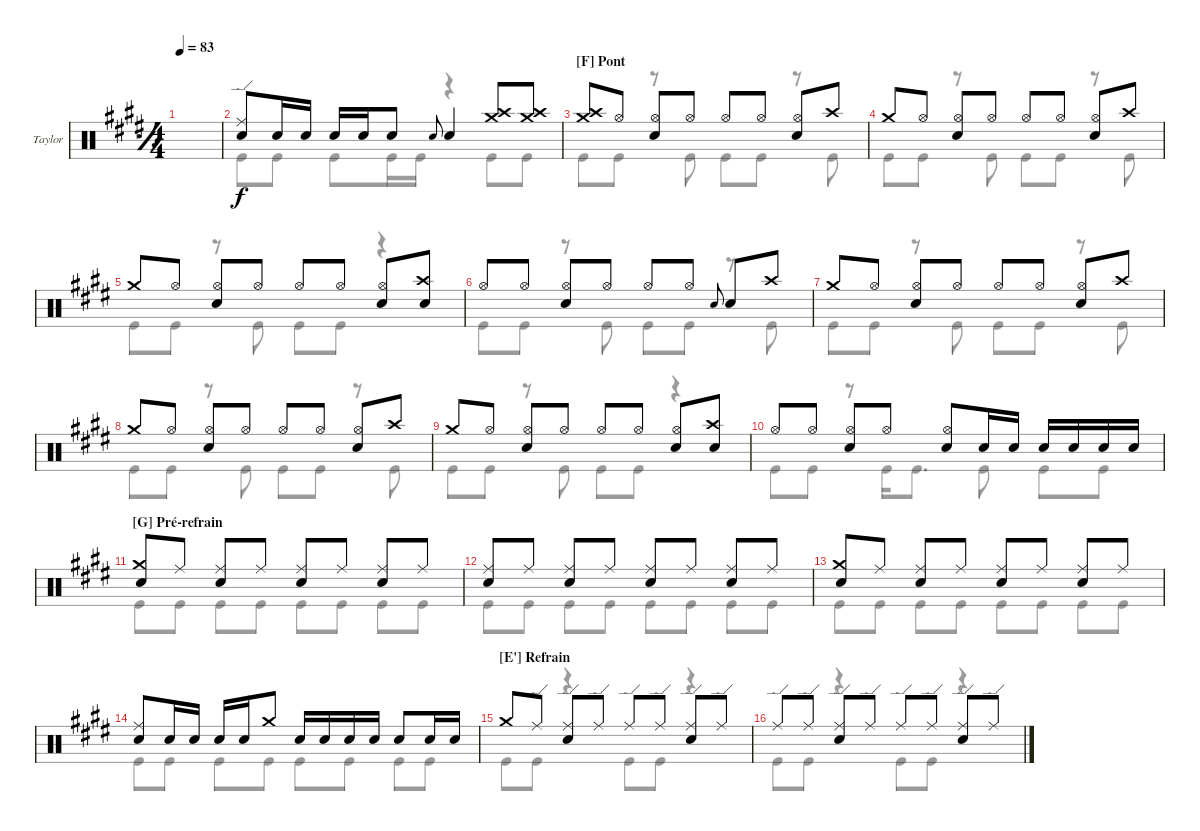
\defaultSystemsLayout 4
\bracketExtendMode groupsimilarinstruments
\firstSystemTrackNameOrientation horizontal
\otherSystemsTrackNameOrientation horizontal
\track ("Drums - Taylor Hawkins" "Taylor") {instrument percussion}
\staff {score}
\articulation defaults
\voice
\ts (4 4)
\tempo 83
\clef neutral
\simile simple
\ks e
|
("Snare (hit) 2" "Ride (edge)").8 "Snare (hit) 2".16 "Snare (hit) 2".16 "Snare (hit) 2".16 "Snare (hit) 2".16 "Snare (hit) 2".8 "Snare (hit) 2".8{gr onbeat} "Snare (hit) 2".4 ("Crash high (hit)" "Crash medium (hit)").8 ("Crash high (hit)" "Crash medium (hit)").8 |
\section ("F" "Pont")
("Crash high (hit)" "Crash medium (hit)").8 "Hi-Hat (open)".8 ("Hi-Hat (open)" "Snare (hit) 2").8 "Hi-Hat (open)".8 "Hi-Hat (open)".8 "Hi-Hat (open)".8 ("Snare (hit) 2" "Hi-Hat (open)").8 "Crash high (hit)".8 |
"Crash medium (hit)".8 "Hi-Hat (open)".8 ("Hi-Hat (open)" "Snare (hit) 2").8 "Hi-Hat (open)".8 "Hi-Hat (open)".8 "Hi-Hat (open)".8 ("Snare (hit) 2" "Hi-Hat (open)").8 "Crash high (hit)".8 |
"Crash medium (hit)".8 "Hi-Hat (open)".8 ("Hi-Hat (open)" "Snare (hit) 2").8 "Hi-Hat (open)".8 "Hi-Hat (open)".8 "Hi-Hat (open)".8 ("Snare (hit) 2" "Hi-Hat (open)").8 ("Crash high (hit)" "Snare (hit) 2").8 |
"Hi-Hat (open)".8 "Hi-Hat (open)".8 ("Hi-Hat (open)" "Snare (hit) 2").8 "Hi-Hat (open)".8 "Hi-Hat (open)".8 "Hi-Hat (open)".8 "Snare (hit) 2".8{gr onbeat} "Snare (hit) 2".8 "Crash high (hit)".8 |
"Crash medium (hit)".8 "Hi-Hat (open)".8 ("Hi-Hat (open)" "Snare (hit) 2").8 "Hi-Hat (open)".8 "Hi-Hat (open)".8 "Hi-Hat (open)".8 ("Snare (hit) 2" "Hi-Hat (open)").8 "Crash high (hit)".8 |
"Crash medium (hit)".8 "Hi-Hat (open)".8 ("Hi-Hat (open)" "Snare (hit) 2").8 "Hi-Hat (open)".8 "Hi-Hat (open)".8 "Hi-Hat (open)".8 ("Snare (hit) 2" "Hi-Hat (open)").8 "Crash high (hit)".8 |
"Crash medium (hit)".8 "Hi-Hat (open)".8 ("Hi-Hat (open)" "Snare (hit) 2").8 "Hi-Hat (open)".8 "Hi-Hat (open)".8 "Hi-Hat (open)".8 ("Snare (hit) 2" "Hi-Hat (open)").8 ("Crash high (hit)" "Snare (hit) 2").8 |
"Hi-Hat (open)".8 "Hi-Hat (open)".8 ("Hi-Hat (open)" "Snare (hit) 2").8 "Hi-Hat (open)".8 ("Hi-Hat (open)" "Snare (hit) 2").8 "Snare (hit) 2".16 "Snare (hit) 2".16 "Snare (hit) 2".16 "Snare (hit) 2".16 "Snare (hit) 2".16 "Snare (hit) 2".16 |
\section ("G" "Pré-refrain")
("Snare (hit) 2" "Crash medium (hit)").8 "Ride (middle)".8 ("Snare (hit) 2" "Ride (middle)").8 "Ride (middle)".8 ("Snare (hit) 2" "Ride (middle)").8 "Ride (middle)".8 ("Snare (hit) 2" "Ride (middle)").8 "Ride (middle)".8 |
("Snare (hit) 2" "Ride (middle)").8 "Ride (middle)".8 ("Snare (hit) 2" "Ride (middle)").8 "Ride (middle)".8 ("Snare (hit) 2" "Ride (middle)").8 "Ride (middle)".8 ("Snare (hit) 2" "Ride (middle)").8 "Ride (middle)".8 |
("Snare (hit) 2" "Crash medium (hit)").8 "Ride (middle)".8 ("Snare (hit) 2" "Ride (middle)").8 "Ride (middle)".8 ("Snare (hit) 2" "Ride (middle)").8 "Ride (middle)".8 ("Snare (hit) 2" "Ride (middle)").8 "Ride (middle)".8 |
("Snare (hit) 2" "Ride (middle)").8 "Snare (hit) 2".16 "Snare (hit) 2".16 "Snare (hit) 2".16 "Snare (hit) 2".16 "Crash medium (hit)".8 "Snare (hit) 2".16 "Snare (hit) 2".16 "Snare (hit) 2".16 "Snare (hit) 2".16 "Snare (hit) 2".8 "Snare (hit) 2".16 "Snare (hit) 2".16 |
\section ("E'" "Refrain")
"Crash medium (hit)".8 "Ride (edge)".8 ("Ride (edge)" "Snare (hit) 2").8 "Ride (edge)".8 "Ride (edge)".8 "Ride (edge)".8 ("Ride (edge)" "Snare (hit) 2").8 "Ride (edge)".8 |
"Ride (edge)".8 "Ride (edge)".8 ("Ride (edge)" "Snare (hit) 2").8 "Ride (edge)".8 "Ride (edge)".8 "Ride (edge)".8 ("Ride (edge)" "Snare (hit) 2").8 "Ride (edge)".8
\voice
\clef neutral
\ottava regular
\simile simple
\ks e
|
\simile none "Kick (hit)".8 "Kick (hit)".8 "Kick (hit)".8 "Kick (hit)".16 "Kick (hit)".16
r.4 "Kick (hit)".8 "Kick (hit)".8 |
"Kick (hit)".8 "Kick (hit)".8 r.8 "Kick (hit)".8 "Kick (hit)".8 "Kick (hit)".8 r.8 "Kick (hit)".8 |
"Kick (hit)".8 "Kick (hit)".8 r.8 "Kick (hit)".8 "Kick (hit)".8 "Kick (hit)".8 r.8 "Kick (hit)".8 |
"Kick (hit)".8 "Kick (hit)".8 r.8 "Kick (hit)".8 "Kick (hit)".8 "Kick (hit)".8 r.4 |
"Kick (hit)".8 "Kick (hit)".8 r.8 "Kick (hit)".8 "Kick (hit)".8 "Kick (hit)".8 r.8 "Kick (hit)".8 |
"Kick (hit)".8 "Kick (hit)".8 r.8 "Kick (hit)".8 "Kick (hit)".8 "Kick (hit)".8 r.8 "Kick (hit)".8 |
"Kick (hit)".8 "Kick (hit)".8 r.8 "Kick (hit)".8 "Kick (hit)".8 "Kick (hit)".8 r.8 "Kick (hit)".8 |
"Kick (hit)".8 "Kick (hit)".8 r.8 "Kick (hit)".8 "Kick (hit)".8 "Kick (hit)".8 r.4 |
"Kick (hit)".8 "Kick (hit)".8 r.8 "Kick (hit)".16 "Kick (hit)".8{d} "Kick (hit)".8 "Kick (hit)".8 "Kick (hit)".8 |
"Kick (hit)".8 "Kick (hit)".8 "Kick (hit)".8 "Kick (hit)".8 "Kick (hit)".8 "Kick (hit)".8 "Kick (hit)".8 "Kick (hit)".8 |
"Kick (hit)".8 "Kick (hit)".8 "Kick (hit)".8 "Kick (hit)".8 "Kick (hit)".8 "Kick (hit)".8 "Kick (hit)".8 "Kick (hit)".8 |
"Kick (hit)".8 "Kick (hit)".8 "Kick (hit)".8 "Kick (hit)".8 "Kick (hit)".8 "Kick (hit)".8 "Kick (hit)".8 "Kick (hit)".8 |
"Kick (hit)".8 "Kick (hit)".8 "Kick (hit)".8 "Kick (hit)".8 "Kick (hit)".8 "Kick (hit)".8 "Kick (hit)".8 "Kick (hit)".8 |
"Kick (hit)".8 "Kick (hit)".8 r.4 "Kick (hit)".8 "Kick (hit)".8 r.4 |
"Kick (hit)".8 "Kick (hit)".8 r.4 "Kick (hit)".8 "Kick (hit)".8 r.4
